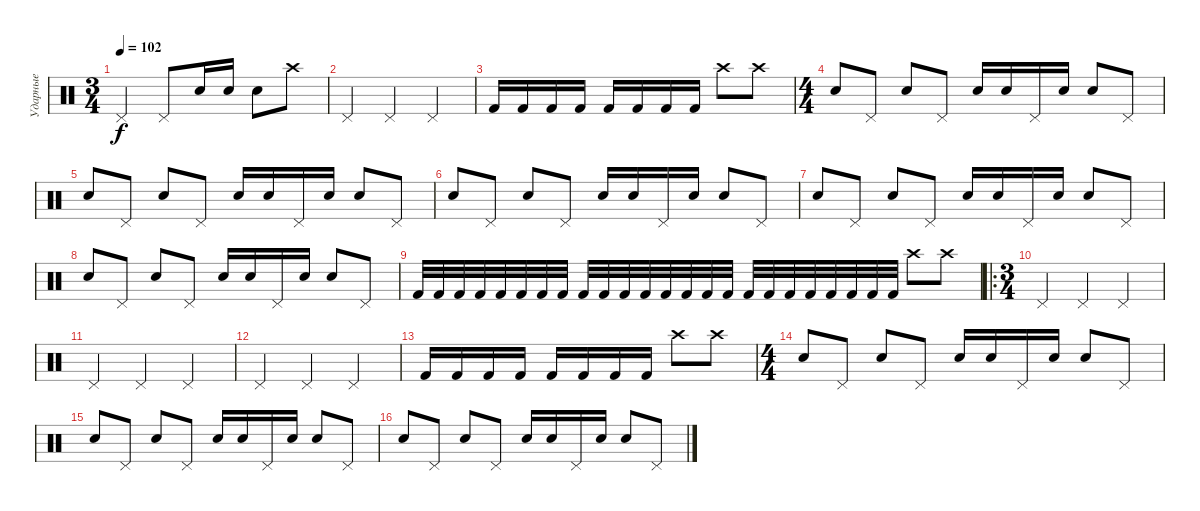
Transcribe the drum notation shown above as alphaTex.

\track ("Ударные" "Ударные") {instrument percussion}
\staff {score}
\articulation defaults
\ts (3 4)
\tempo 102
\clef neutral
\ks c "Pedal Hi-Hat (hit)".4{dy f} "Pedal Hi-Hat (hit)".8 "Snare (hit) 2".16 "Snare (hit) 2".16 "Snare (hit) 2".8 "Crash high (hit)".8
|
"Pedal Hi-Hat (hit)".4 "Pedal Hi-Hat (hit)".4 "Pedal Hi-Hat (hit)".4 |
"Kick (hit) 2".16 "Kick (hit) 2".16 "Kick (hit) 2".16 "Kick (hit) 2".16 "Kick (hit) 2".16 "Kick (hit) 2".16 "Kick (hit) 2".16 "Kick (hit) 2".16 "Crash high (hit)".8 "Crash high (hit)".8 |
\ts (4 4)
"Snare (hit) 2".8 "Pedal Hi-Hat (hit)".8 "Snare (hit) 2".8 "Pedal Hi-Hat (hit)".8 "Snare (hit) 2".16 "Snare (hit) 2".16 "Pedal Hi-Hat (hit)".16 "Snare (hit) 2".16 "Snare (hit) 2".8 "Pedal Hi-Hat (hit)".8 |
"Snare (hit) 2".8 "Pedal Hi-Hat (hit)".8 "Snare (hit) 2".8 "Pedal Hi-Hat (hit)".8 "Snare (hit) 2".16 "Snare (hit) 2".16 "Pedal Hi-Hat (hit)".16 "Snare (hit) 2".16 "Snare (hit) 2".8 "Pedal Hi-Hat (hit)".8 |
"Snare (hit) 2".8 "Pedal Hi-Hat (hit)".8 "Snare (hit) 2".8 "Pedal Hi-Hat (hit)".8 "Snare (hit) 2".16 "Snare (hit) 2".16 "Pedal Hi-Hat (hit)".16 "Snare (hit) 2".16 "Snare (hit) 2".8 "Pedal Hi-Hat (hit)".8 |
"Snare (hit) 2".8 "Pedal Hi-Hat (hit)".8 "Snare (hit) 2".8 "Pedal Hi-Hat (hit)".8 "Snare (hit) 2".16 "Snare (hit) 2".16 "Pedal Hi-Hat (hit)".16 "Snare (hit) 2".16 "Snare (hit) 2".8 "Pedal Hi-Hat (hit)".8 |
"Snare (hit) 2".8 "Pedal Hi-Hat (hit)".8 "Snare (hit) 2".8 "Pedal Hi-Hat (hit)".8 "Snare (hit) 2".16 "Snare (hit) 2".16 "Pedal Hi-Hat (hit)".16 "Snare (hit) 2".16 "Snare (hit) 2".8 "Pedal Hi-Hat (hit)".8 |
"Kick (hit) 2".32 "Kick (hit) 2".32 "Kick (hit) 2".32 "Kick (hit) 2".32 "Kick (hit) 2".32 "Kick (hit) 2".32 "Kick (hit) 2".32 "Kick (hit) 2".32 "Kick (hit) 2".32 "Kick (hit) 2".32 "Kick (hit) 2".32 "Kick (hit) 2".32 "Kick (hit) 2".32 "Kick (hit) 2".32 "Kick (hit) 2".32 "Kick (hit) 2".32 "Kick (hit) 2".32 "Kick (hit) 2".32 "Kick (hit) 2".32 "Kick (hit) 2".32 "Kick (hit) 2".32 "Kick (hit) 2".32 "Kick (hit) 2".32 "Kick (hit) 2".32 "Crash high (hit)".8 "Crash high (hit)".8 |
\ro
\ts (3 4)
"Pedal Hi-Hat (hit)".4 "Pedal Hi-Hat (hit)".4 "Pedal Hi-Hat (hit)".4 |
"Pedal Hi-Hat (hit)".4 "Pedal Hi-Hat (hit)".4 "Pedal Hi-Hat (hit)".4 |
"Pedal Hi-Hat (hit)".4 "Pedal Hi-Hat (hit)".4 "Pedal Hi-Hat (hit)".4 |
"Kick (hit) 2".16 "Kick (hit) 2".16 "Kick (hit) 2".16 "Kick (hit) 2".16 "Kick (hit) 2".16 "Kick (hit) 2".16 "Kick (hit) 2".16 "Kick (hit) 2".16 "Crash high (hit)".8 "Crash high (hit)".8 |
\ts (4 4)
"Snare (hit) 2".8 "Pedal Hi-Hat (hit)".8 "Snare (hit) 2".8 "Pedal Hi-Hat (hit)".8 "Snare (hit) 2".16 "Snare (hit) 2".16 "Pedal Hi-Hat (hit)".16 "Snare (hit) 2".16 "Snare (hit) 2".8 "Pedal Hi-Hat (hit)".8 |
"Snare (hit) 2".8 "Pedal Hi-Hat (hit)".8 "Snare (hit) 2".8 "Pedal Hi-Hat (hit)".8 "Snare (hit) 2".16 "Snare (hit) 2".16 "Pedal Hi-Hat (hit)".16 "Snare (hit) 2".16 "Snare (hit) 2".8 "Pedal Hi-Hat (hit)".8 |
"Snare (hit) 2".8 "Pedal Hi-Hat (hit)".8 "Snare (hit) 2".8 "Pedal Hi-Hat (hit)".8 "Snare (hit) 2".16 "Snare (hit) 2".16 "Pedal Hi-Hat (hit)".16 "Snare (hit) 2".16 "Snare (hit) 2".8 "Pedal Hi-Hat (hit)".8
